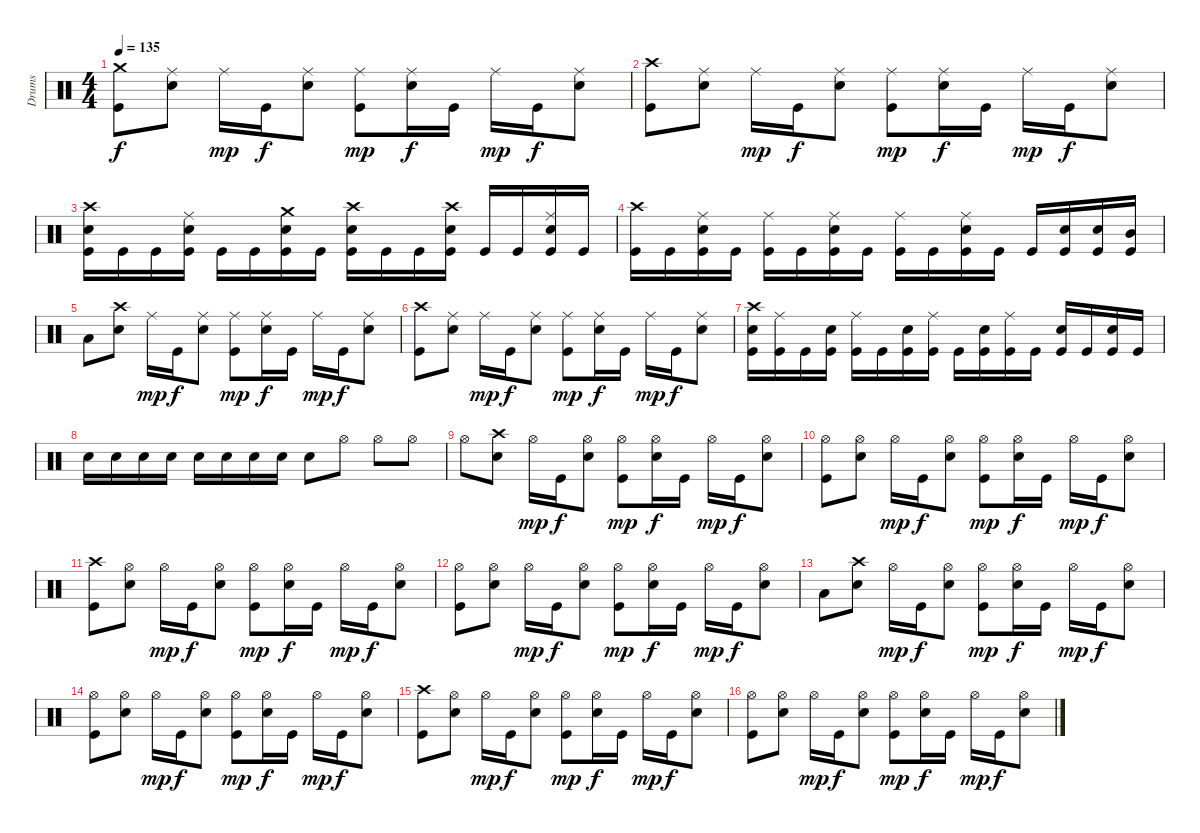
\track ("Drums" "Drums") {instrument percussion}
\staff {score}
\articulation defaults
\ts (4 4)
\tempo 135
\clef neutral
\ks c
("Crash medium (hit)" "Kick (hit)").8{dy f} ("Ride (middle)" "Snare (hit) 2").8 "Ride (middle)".16{dy mp} "Kick (hit)".16{dy f} ("Ride (middle)" "Snare (hit) 2").8 ("Ride (middle)" "Kick (hit)").8{dy mp} ("Ride (middle)" "Snare (hit) 2").16{dy f} "Kick (hit)".16 "Ride (middle)".16{dy mp} "Kick (hit)".16{dy f} ("Ride (middle)" "Snare (hit) 2").8 |
("Crash high (hit)" "Kick (hit)").8 ("Ride (middle)" "Snare (hit) 2").8 "Ride (middle)".16{dy mp} "Kick (hit)".16{dy f} ("Ride (middle)" "Snare (hit) 2").8 ("Ride (middle)" "Kick (hit)").8{dy mp} ("Ride (middle)" "Snare (hit) 2").16{dy f} "Kick (hit)".16 "Ride (middle)".16{dy mp} "Kick (hit)".16{dy f} ("Ride (middle)" "Snare (hit) 2").8 |
("Crash high (hit)" "Snare (hit) 2" "Kick (hit)").16 "Kick (hit)".16 "Kick (hit)".16 ("Ride (middle)" "Snare (hit) 2" "Kick (hit)").16 "Kick (hit)".16 "Kick (hit)".16 ("Crash medium (hit)" "Snare (hit) 2" "Kick (hit)").16 "Kick (hit)".16 ("Crash high (hit)" "Snare (hit) 2" "Kick (hit)").16 "Kick (hit)".16 "Kick (hit)".16 ("Crash high (hit)" "Snare (hit) 2" "Kick (hit)").16 "Kick (hit)".16 "Kick (hit)".16 ("Ride (middle)" "Snare (hit) 2" "Kick (hit)").16 "Kick (hit)".16 |
("Crash high (hit)" "Kick (hit)").16 "Kick (hit)".16 ("Ride (middle)" "Snare (hit) 2" "Kick (hit)").16 "Kick (hit)".16 ("Ride (middle)" "Kick (hit)").16 "Kick (hit)".16 ("Ride (middle)" "Snare (hit) 2" "Kick (hit)").16 "Kick (hit)".16 ("Ride (middle)" "Kick (hit)").16 "Kick (hit)".16 ("Ride (middle)" "Snare (hit) 2" "Kick (hit)").16 "Kick (hit)".16 "Kick (hit)".16 ("Snare (hit) 2" "Kick (hit)").16 ("Snare (hit) 2" "Kick (hit)").16 ("Mid Tom (hit)" "Kick (hit)").16 |
"Low Floor Tom (hit)".8 ("Crash high (hit)" "Snare (hit) 2").8 "Ride (middle)".16{dy mp} "Kick (hit)".16{dy f} ("Ride (middle)" "Snare (hit) 2").8 ("Ride (middle)" "Kick (hit)").8{dy mp} ("Ride (middle)" "Snare (hit) 2").16{dy f} "Kick (hit)".16 "Ride (middle)".16{dy mp} "Kick (hit)".16{dy f} ("Ride (middle)" "Snare (hit) 2").8 |
("Crash high (hit)" "Kick (hit)").8 ("Ride (middle)" "Snare (hit) 2").8 "Ride (middle)".16{dy mp} "Kick (hit)".16{dy f} ("Ride (middle)" "Snare (hit) 2").8 ("Ride (middle)" "Kick (hit)").8{dy mp} ("Ride (middle)" "Snare (hit) 2").16{dy f} "Kick (hit)".16 "Ride (middle)".16{dy mp} "Kick (hit)".16{dy f} ("Ride (middle)" "Snare (hit) 2").8 |
("Crash high (hit)" "Snare (hit) 2" "Kick (hit)").16 ("Ride (middle)" "Kick (hit)").16 "Kick (hit)".16 ("Snare (hit) 2" "Kick (hit)").16 ("Ride (middle)" "Kick (hit)").16 "Kick (hit)".16 ("Snare (hit) 2" "Kick (hit)").16 ("Ride (middle)" "Kick (hit)").16 "Kick (hit)".16 ("Snare (hit) 2" "Kick (hit)").16 ("Ride (middle)" "Kick (hit)").16 "Kick (hit)".16 ("Snare (hit) 2" "Kick (hit)").16 "Kick (hit)".16 ("Snare (hit) 2" "Kick (hit)").16 "Kick (hit)".16 |
"Snare (hit) 2".16 "Snare (hit) 2".16 "Snare (hit) 2".16 "Snare (hit) 2".16 "Snare (hit) 2".16 "Snare (hit) 2".16 "Snare (hit) 2".16 "Snare (hit) 2".16 "Snare (hit) 2".8 "Hi-Hat (open)".8 "Hi-Hat (open)".8 "Hi-Hat (open)".8 |
"Hi-Hat (open)".8 ("Crash high (hit)" "Snare (hit) 2").8 "Hi-Hat (open)".16{dy mp} "Kick (hit)".16{dy f} ("Hi-Hat (open)" "Snare (hit) 2").8 ("Hi-Hat (open)" "Kick (hit)").8{dy mp} ("Hi-Hat (open)" "Snare (hit) 2").16{dy f} "Kick (hit)".16 "Hi-Hat (open)".16{dy mp} "Kick (hit)".16{dy f} ("Hi-Hat (open)" "Snare (hit) 2").8 |
("Hi-Hat (open)" "Kick (hit)").8 ("Hi-Hat (open)" "Snare (hit) 2").8 "Hi-Hat (open)".16{dy mp} "Kick (hit)".16{dy f} ("Hi-Hat (open)" "Snare (hit) 2").8 ("Hi-Hat (open)" "Kick (hit)").8{dy mp} ("Hi-Hat (open)" "Snare (hit) 2").16{dy f} "Kick (hit)".16 "Hi-Hat (open)".16{dy mp} "Kick (hit)".16{dy f} ("Hi-Hat (open)" "Snare (hit) 2").8 |
("Crash high (hit)" "Kick (hit)").8 ("Hi-Hat (open)" "Snare (hit) 2").8 "Hi-Hat (open)".16{dy mp} "Kick (hit)".16{dy f} ("Hi-Hat (open)" "Snare (hit) 2").8 ("Hi-Hat (open)" "Kick (hit)").8{dy mp} ("Hi-Hat (open)" "Snare (hit) 2").16{dy f} "Kick (hit)".16 "Hi-Hat (open)".16{dy mp} "Kick (hit)".16{dy f} ("Hi-Hat (open)" "Snare (hit) 2").8 |
("Hi-Hat (open)" "Kick (hit)").8 ("Hi-Hat (open)" "Snare (hit) 2").8 "Hi-Hat (open)".16{dy mp} "Kick (hit)".16{dy f} ("Hi-Hat (open)" "Snare (hit) 2").8 ("Hi-Hat (open)" "Kick (hit)").8{dy mp} ("Hi-Hat (open)" "Snare (hit) 2").16{dy f} "Kick (hit)".16 "Hi-Hat (open)".16{dy mp} "Kick (hit)".16{dy f} ("Hi-Hat (open)" "Snare (hit) 2").8 |
"Low Tom (hit)".8 ("Crash high (hit)" "Snare (hit) 2").8 "Hi-Hat (open)".16{dy mp} "Kick (hit)".16{dy f} ("Hi-Hat (open)" "Snare (hit) 2").8 ("Hi-Hat (open)" "Kick (hit)").8{dy mp} ("Hi-Hat (open)" "Snare (hit) 2").16{dy f} "Kick (hit)".16 "Hi-Hat (open)".16{dy mp} "Kick (hit)".16{dy f} ("Hi-Hat (open)" "Snare (hit) 2").8 |
("Hi-Hat (open)" "Kick (hit)").8 ("Hi-Hat (open)" "Snare (hit) 2").8 "Hi-Hat (open)".16{dy mp} "Kick (hit)".16{dy f} ("Hi-Hat (open)" "Snare (hit) 2").8 ("Hi-Hat (open)" "Kick (hit)").8{dy mp} ("Hi-Hat (open)" "Snare (hit) 2").16{dy f} "Kick (hit)".16 "Hi-Hat (open)".16{dy mp} "Kick (hit)".16{dy f} ("Hi-Hat (open)" "Snare (hit) 2").8 |
("Crash high (hit)" "Kick (hit)").8 ("Hi-Hat (open)" "Snare (hit) 2").8 "Hi-Hat (open)".16{dy mp} "Kick (hit)".16{dy f} ("Hi-Hat (open)" "Snare (hit) 2").8 ("Hi-Hat (open)" "Kick (hit)").8{dy mp} ("Hi-Hat (open)" "Snare (hit) 2").16{dy f} "Kick (hit)".16 "Hi-Hat (open)".16{dy mp} "Kick (hit)".16{dy f} ("Hi-Hat (open)" "Snare (hit) 2").8 |
("Hi-Hat (open)" "Kick (hit)").8 ("Hi-Hat (open)" "Snare (hit) 2").8 "Hi-Hat (open)".16{dy mp} "Kick (hit)".16{dy f} ("Hi-Hat (open)" "Snare (hit) 2").8 ("Hi-Hat (open)" "Kick (hit)").8{dy mp} ("Hi-Hat (open)" "Snare (hit) 2").16{dy f} "Kick (hit)".16 "Hi-Hat (open)".16{dy mp} "Kick (hit)".16{dy f} ("Hi-Hat (open)" "Snare (hit) 2").8
